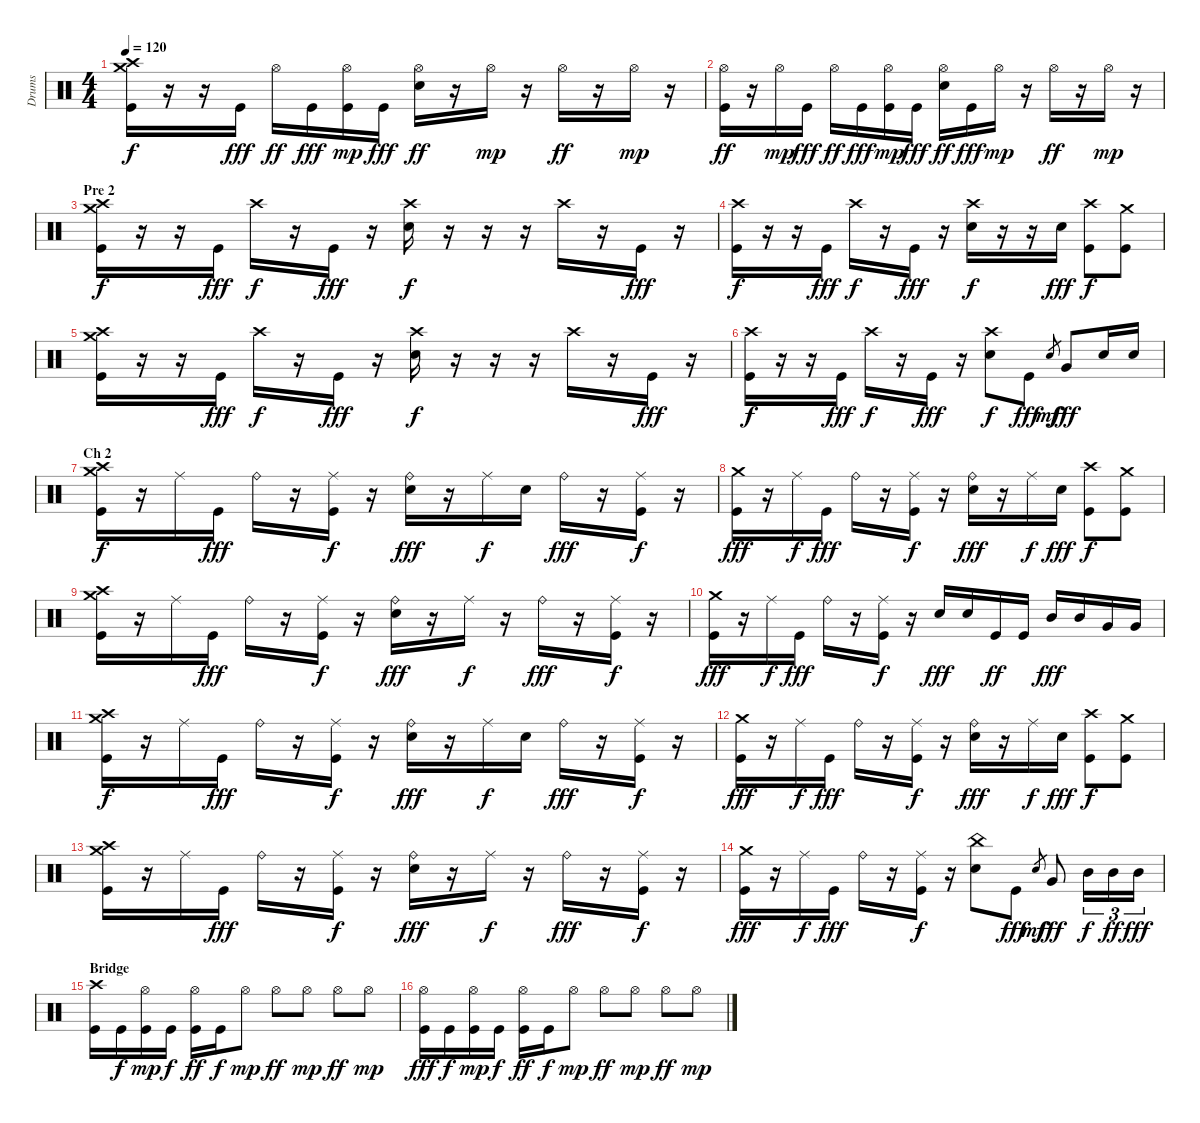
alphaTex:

\track ("Drums" "Drums") {instrument percussion}
\staff {score}
\articulation defaults
\ts (4 4)
\tempo 120
\clef neutral
\ks c
("Crash high (hit)" "Crash medium (hit)" "Kick (hit)").16{dy f} r.16 r.16 "Kick (hit)".16{dy fff} "Hi-Hat (open)".16{dy ff} "Kick (hit)".16{dy fff} ("Hi-Hat (open)" "Kick (hit)").16{dy mp} "Kick (hit)".16{dy fff} ("Hi-Hat (open)" "Snare (hit) 2").16{dy ff} r.16 "Hi-Hat (open)".16{dy mp} r.16 "Hi-Hat (open)".16{dy ff} r.16 "Hi-Hat (open)".16{dy mp} r.16 |
("Hi-Hat (open)" "Kick (hit)").16{dy ff} r.16 "Hi-Hat (open)".16{dy mp} "Kick (hit)".16{dy fff} "Hi-Hat (open)".16{dy ff} "Kick (hit)".16{dy fff} ("Hi-Hat (open)" "Kick (hit)").16{dy mp} "Kick (hit)".16{dy fff} ("Hi-Hat (open)" "Snare (hit) 2").16{dy ff} "Kick (hit)".16{dy fff} "Hi-Hat (open)".16{dy mp} r.16 "Hi-Hat (open)".16{dy ff} r.16 "Hi-Hat (open)".16{dy mp} r.16 |
\section ("" "Pre 2")
("Crash high (hit)" "Crash medium (hit)" "Kick (hit)").16{dy f} r.16 r.16 "Kick (hit)".16{dy fff} "Crash high (hit)".16{dy f} r.16 "Kick (hit)".16{dy fff} r.16 ("Crash high (hit)" "Snare (hit) 2").16{dy f} r.16 r.16 r.16 "Crash high (hit)".16 r.16 "Kick (hit)".16{dy fff} r.16 |
("Crash high (hit)" "Kick (hit)").16{dy f} r.16 r.16 "Kick (hit)".16{dy fff} "Crash high (hit)".16{dy f} r.16 "Kick (hit)".16{dy fff} r.16 ("Crash high (hit)" "Snare (hit) 2").16{dy f} r.16 r.16 "Snare (hit) 2".16{dy fff} ("Crash high (hit)" "Kick (hit)").8{dy f} ("Crash medium (hit)" "Kick (hit)").8 |
("Crash high (hit)" "Crash medium (hit)" "Kick (hit)").16 r.16 r.16 "Kick (hit)".16{dy fff} "Crash high (hit)".16{dy f} r.16 "Kick (hit)".16{dy fff} r.16 ("Crash high (hit)" "Snare (hit) 2").16{dy f} r.16 r.16 r.16 "Crash high (hit)".16 r.16 "Kick (hit)".16{dy fff} r.16 |
("Crash high (hit)" "Kick (hit)").16{dy f} r.16 r.16 "Kick (hit)".16{dy fff} "Crash high (hit)".16{dy f} r.16 "Kick (hit)".16{dy fff} r.16 ("Crash high (hit)" "Snare (hit) 2").8{dy f} "Kick (hit)".8{dy fff} "Snare (hit)".8{gr dy mf} "Very Low Tom (hit)".8{dy fff} "Snare (hit) 2".16 "Snare (hit) 2".16 |
\section ("" "Ch 2")
("Crash high (hit)" "Crash medium (hit)" "Kick (hit)").16{dy f} r.16 "Ride (middle)".16 "Kick (hit)".16{dy fff} "Ride (bell)".16 r.16 ("Ride (middle)" "Kick (hit)").16{dy f} r.16 ("Ride (bell)" "Snare (hit) 2").16{dy fff} r.16 "Ride (middle)".16{dy f} "Snare (hit) 2".16 "Ride (bell)".16{dy fff} r.16 ("Ride (middle)" "Kick (hit)").16{dy f} r.16 |
("Crash medium (hit)" "Kick (hit)").16{dy fff} r.16 "Ride (middle)".16{dy f} "Kick (hit)".16{dy fff} "Ride (bell)".16 r.16 ("Ride (middle)" "Kick (hit)").16{dy f} r.16 ("Ride (bell)" "Snare (hit) 2").16{dy fff} r.16 "Ride (middle)".16{dy f} "Snare (hit) 2".16{dy fff} ("Crash high (hit)" "Kick (hit)").8{dy f} ("Crash medium (hit)" "Kick (hit)").8 |
("Crash high (hit)" "Crash medium (hit)" "Kick (hit)").16 r.16 "Ride (middle)".16 "Kick (hit)".16{dy fff} "Ride (bell)".16 r.16 ("Ride (middle)" "Kick (hit)").16{dy f} r.16 ("Ride (bell)" "Snare (hit) 2").16{dy fff} r.16 "Ride (middle)".16{dy f} r.16 "Ride (bell)".16{dy fff} r.16 ("Ride (middle)" "Kick (hit)").16{dy f} r.16 |
("Crash medium (hit)" "Kick (hit)").16{dy fff} r.16 "Ride (middle)".16{dy f} "Kick (hit)".16{dy fff} "Ride (bell)".16 r.16 ("Ride (middle)" "Kick (hit)").16{dy f} r.16 "Snare (hit) 2".16{dy fff} "Snare (hit) 2".16 "Kick (hit)".16{dy ff} "Kick (hit)".16 "Mid Tom (hit)".16{dy fff} "Mid Tom (hit)".16 "Very Low Tom (hit)".16 "Very Low Tom (hit)".16 |
("Crash high (hit)" "Crash medium (hit)" "Kick (hit)").16{dy f} r.16 "Ride (middle)".16 "Kick (hit)".16{dy fff} "Ride (bell)".16 r.16 ("Ride (middle)" "Kick (hit)").16{dy f} r.16 ("Ride (bell)" "Snare (hit) 2").16{dy fff} r.16 "Ride (middle)".16{dy f} "Snare (hit) 2".16 "Ride (bell)".16{dy fff} r.16 ("Ride (middle)" "Kick (hit)").16{dy f} r.16 |
("Crash medium (hit)" "Kick (hit)").16{dy fff} r.16 "Ride (middle)".16{dy f} "Kick (hit)".16{dy fff} "Ride (bell)".16 r.16 ("Ride (middle)" "Kick (hit)").16{dy f} r.16 ("Ride (bell)" "Snare (hit) 2").16{dy fff} r.16 "Ride (middle)".16{dy f} "Snare (hit) 2".16{dy fff} ("Crash high (hit)" "Kick (hit)").8{dy f} ("Crash medium (hit)" "Kick (hit)").8 |
("Crash high (hit)" "Crash medium (hit)" "Kick (hit)").16 r.16 "Ride (middle)".16 "Kick (hit)".16{dy fff} "Ride (bell)".16 r.16 ("Ride (middle)" "Kick (hit)").16{dy f} r.16 ("Ride (bell)" "Snare (hit) 2").16{dy fff} r.16 "Ride (middle)".16{dy f} r.16 "Ride (bell)".16{dy fff} r.16 ("Ride (middle)" "Kick (hit)").16{dy f} r.16 |
("Crash medium (hit)" "Kick (hit)").16{dy fff} r.16 "Ride (middle)".16{dy f} "Kick (hit)".16{dy fff} "Ride (bell)".16 r.16 ("Ride (middle)" "Kick (hit)").16{dy f} r.16 ("China (hit)" "Snare (hit) 2").8 "Kick (hit)".8{dy fff} "Snare (hit)".8{gr dy mf} "Very Low Tom (hit)".8{dy fff} "Mid Tom (hit)".16{tu (3 2) dy f} "Mid Tom (hit)".16{tu (3 2) dy ff} "Mid Tom (hit)".16{tu (3 2) dy fff} |
\section ("" "Bridge")
("Crash high (hit)" "Kick (hit)").16 "Kick (hit)".16{dy f} ("Hi-Hat (open)" "Kick (hit)").16{dy mp} "Kick (hit)".16{dy f} ("Hi-Hat (open)" "Kick (hit)").16{dy ff} "Kick (hit)".16{dy f} "Hi-Hat (open)".8{dy mp} "Hi-Hat (open)".8{dy ff} "Hi-Hat (open)".8{dy mp} "Hi-Hat (open)".8{dy ff} "Hi-Hat (open)".8{dy mp} |
("Hi-Hat (open)" "Kick (hit)").16{dy fff} "Kick (hit)".16{dy f} ("Hi-Hat (open)" "Kick (hit)").16{dy mp} "Kick (hit)".16{dy f} ("Hi-Hat (open)" "Kick (hit)").16{dy ff} "Kick (hit)".16{dy f} "Hi-Hat (open)".8{dy mp} "Hi-Hat (open)".8{dy ff} "Hi-Hat (open)".8{dy mp} "Hi-Hat (open)".8{dy ff} "Hi-Hat (open)".8{dy mp}
